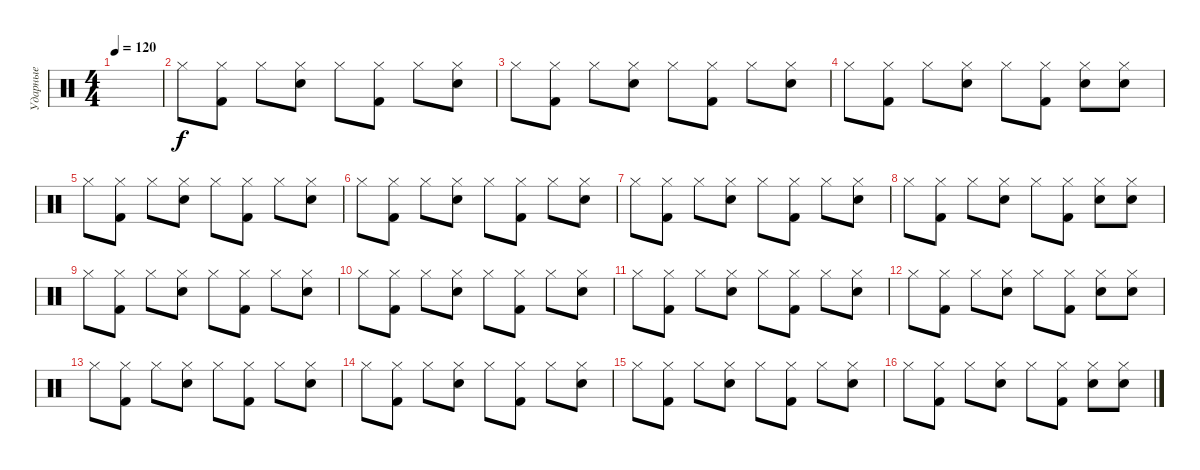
\track ("Ударные" "Ударные") {instrument percussion}
\staff {score}
\articulation defaults
\ts (4 4)
\tempo 120
\clef neutral
\ks c
|
"Hi-Hat (closed)".8 ("Kick (hit) 2" "Hi-Hat (closed)").8 "Hi-Hat (closed)".8 ("Electric Snare (hit)" "Hi-Hat (closed)").8 "Hi-Hat (closed)".8 ("Kick (hit) 2" "Hi-Hat (closed)").8 "Hi-Hat (closed)".8 ("Electric Snare (hit)" "Hi-Hat (closed)").8 |
"Hi-Hat (closed)".8 ("Kick (hit) 2" "Hi-Hat (closed)").8 "Hi-Hat (closed)".8 ("Electric Snare (hit)" "Hi-Hat (closed)").8 "Hi-Hat (closed)".8 ("Kick (hit) 2" "Hi-Hat (closed)").8 "Hi-Hat (closed)".8 ("Electric Snare (hit)" "Hi-Hat (closed)").8 |
"Hi-Hat (closed)".8 ("Kick (hit) 2" "Hi-Hat (closed)").8 "Hi-Hat (closed)".8 ("Electric Snare (hit)" "Hi-Hat (closed)").8 "Hi-Hat (closed)".8 ("Kick (hit) 2" "Hi-Hat (closed)").8 ("Electric Snare (hit)" "Hi-Hat (closed)").8 ("Electric Snare (hit)" "Hi-Hat (closed)").8 |
"Hi-Hat (closed)".8 ("Kick (hit) 2" "Hi-Hat (closed)").8 "Hi-Hat (closed)".8 ("Electric Snare (hit)" "Hi-Hat (closed)").8 "Hi-Hat (closed)".8 ("Kick (hit) 2" "Hi-Hat (closed)").8 "Hi-Hat (closed)".8 ("Electric Snare (hit)" "Hi-Hat (closed)").8 |
"Hi-Hat (closed)".8 ("Kick (hit) 2" "Hi-Hat (closed)").8 "Hi-Hat (closed)".8 ("Electric Snare (hit)" "Hi-Hat (closed)").8 "Hi-Hat (closed)".8 ("Kick (hit) 2" "Hi-Hat (closed)").8 "Hi-Hat (closed)".8 ("Electric Snare (hit)" "Hi-Hat (closed)").8 |
"Hi-Hat (closed)".8 ("Kick (hit) 2" "Hi-Hat (closed)").8 "Hi-Hat (closed)".8 ("Electric Snare (hit)" "Hi-Hat (closed)").8 "Hi-Hat (closed)".8 ("Kick (hit) 2" "Hi-Hat (closed)").8 "Hi-Hat (closed)".8 ("Electric Snare (hit)" "Hi-Hat (closed)").8 |
"Hi-Hat (closed)".8 ("Kick (hit) 2" "Hi-Hat (closed)").8 "Hi-Hat (closed)".8 ("Electric Snare (hit)" "Hi-Hat (closed)").8 "Hi-Hat (closed)".8 ("Kick (hit) 2" "Hi-Hat (closed)").8 ("Electric Snare (hit)" "Hi-Hat (closed)").8 ("Electric Snare (hit)" "Hi-Hat (closed)").8 |
"Hi-Hat (closed)".8 ("Kick (hit) 2" "Hi-Hat (closed)").8 "Hi-Hat (closed)".8 ("Electric Snare (hit)" "Hi-Hat (closed)").8 "Hi-Hat (closed)".8 ("Kick (hit) 2" "Hi-Hat (closed)").8 "Hi-Hat (closed)".8 ("Electric Snare (hit)" "Hi-Hat (closed)").8 |
"Hi-Hat (closed)".8 ("Kick (hit) 2" "Hi-Hat (closed)").8 "Hi-Hat (closed)".8 ("Electric Snare (hit)" "Hi-Hat (closed)").8 "Hi-Hat (closed)".8 ("Kick (hit) 2" "Hi-Hat (closed)").8 "Hi-Hat (closed)".8 ("Electric Snare (hit)" "Hi-Hat (closed)").8 |
"Hi-Hat (closed)".8 ("Kick (hit) 2" "Hi-Hat (closed)").8 "Hi-Hat (closed)".8 ("Electric Snare (hit)" "Hi-Hat (closed)").8 "Hi-Hat (closed)".8 ("Kick (hit) 2" "Hi-Hat (closed)").8 "Hi-Hat (closed)".8 ("Electric Snare (hit)" "Hi-Hat (closed)").8 |
"Hi-Hat (closed)".8 ("Kick (hit) 2" "Hi-Hat (closed)").8 "Hi-Hat (closed)".8 ("Electric Snare (hit)" "Hi-Hat (closed)").8 "Hi-Hat (closed)".8 ("Kick (hit) 2" "Hi-Hat (closed)").8 ("Electric Snare (hit)" "Hi-Hat (closed)").8 ("Electric Snare (hit)" "Hi-Hat (closed)").8 |
"Hi-Hat (closed)".8 ("Kick (hit) 2" "Hi-Hat (closed)").8 "Hi-Hat (closed)".8 ("Electric Snare (hit)" "Hi-Hat (closed)").8 "Hi-Hat (closed)".8 ("Kick (hit) 2" "Hi-Hat (closed)").8 "Hi-Hat (closed)".8 ("Electric Snare (hit)" "Hi-Hat (closed)").8 |
"Hi-Hat (closed)".8 ("Kick (hit) 2" "Hi-Hat (closed)").8 "Hi-Hat (closed)".8 ("Electric Snare (hit)" "Hi-Hat (closed)").8 "Hi-Hat (closed)".8 ("Kick (hit) 2" "Hi-Hat (closed)").8 "Hi-Hat (closed)".8 ("Electric Snare (hit)" "Hi-Hat (closed)").8 |
"Hi-Hat (closed)".8 ("Kick (hit) 2" "Hi-Hat (closed)").8 "Hi-Hat (closed)".8 ("Electric Snare (hit)" "Hi-Hat (closed)").8 "Hi-Hat (closed)".8 ("Kick (hit) 2" "Hi-Hat (closed)").8 "Hi-Hat (closed)".8 ("Electric Snare (hit)" "Hi-Hat (closed)").8 |
"Hi-Hat (closed)".8 ("Kick (hit) 2" "Hi-Hat (closed)").8 "Hi-Hat (closed)".8 ("Electric Snare (hit)" "Hi-Hat (closed)").8 "Hi-Hat (closed)".8 ("Kick (hit) 2" "Hi-Hat (closed)").8 ("Electric Snare (hit)" "Hi-Hat (closed)").8 ("Electric Snare (hit)" "Hi-Hat (closed)").8
